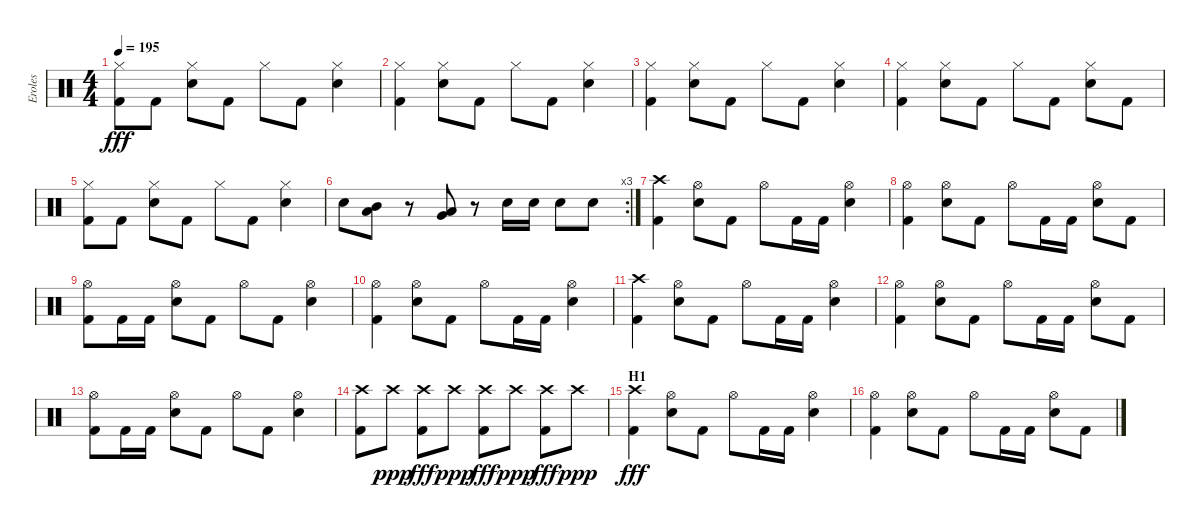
\track ("Eroles" "Eroles") {instrument percussion}
\staff {score}
\articulation defaults
\ts (4 4)
\tempo 195
\clef neutral
\ks c
("Hi-Hat (closed)" "Kick (hit) 2").8{dy fff} "Kick (hit) 2".8 ("Hi-Hat (closed)" "Snare (hit) 2").8 "Kick (hit) 2".8 "Hi-Hat (closed)".8 "Kick (hit) 2".8 ("Hi-Hat (closed)" "Snare (hit) 2").4 |
("Hi-Hat (closed)" "Kick (hit) 2").4 ("Hi-Hat (closed)" "Snare (hit) 2").8 "Kick (hit) 2".8 "Hi-Hat (closed)".8 "Kick (hit) 2".8 ("Hi-Hat (closed)" "Snare (hit) 2").4 |
("Hi-Hat (closed)" "Kick (hit) 2").4 ("Hi-Hat (closed)" "Snare (hit) 2").8 "Kick (hit) 2".8 "Hi-Hat (closed)".8 "Kick (hit) 2".8 ("Hi-Hat (closed)" "Snare (hit) 2").4 |
("Hi-Hat (closed)" "Kick (hit) 2").4 ("Hi-Hat (closed)" "Snare (hit) 2").8 "Kick (hit) 2".8 "Hi-Hat (closed)".8 "Kick (hit) 2".8 ("Hi-Hat (closed)" "Snare (hit) 2").8 "Kick (hit) 2".8 |
("Hi-Hat (closed)" "Kick (hit) 2").8 "Kick (hit) 2".8 ("Hi-Hat (closed)" "Snare (hit) 2").8 "Kick (hit) 2".8 "Hi-Hat (closed)".8 "Kick (hit) 2".8 ("Hi-Hat (closed)" "Snare (hit) 2").4 |
\rc 3 "Snare (hit) 2".8
("Mid Tom (hit)" "Low Tom (hit)").8 r.8 ("Low Tom (hit)" "Very Low Tom (hit)").8 r.8 "Snare (hit) 2".16 "Snare (hit) 2".16 "Snare (hit) 2".8 "Snare (hit) 2".8 |
("Crash high (hit)" "Kick (hit) 2").4 ("Hi-Hat (open)" "Snare (hit) 2").8 "Kick (hit) 2".8 "Hi-Hat (open)".8 "Kick (hit) 2".16 "Kick (hit) 2".16 ("Hi-Hat (open)" "Snare (hit) 2").4 |
("Hi-Hat (open)" "Kick (hit) 2").4 ("Hi-Hat (open)" "Snare (hit) 2").8 "Kick (hit) 2".8 "Hi-Hat (open)".8 "Kick (hit) 2".16 "Kick (hit) 2".16 ("Hi-Hat (open)" "Snare (hit) 2").8 "Kick (hit) 2".8 |
("Hi-Hat (open)" "Kick (hit) 2").8 "Kick (hit) 2".16 "Kick (hit) 2".16 ("Hi-Hat (open)" "Snare (hit) 2").8 "Kick (hit) 2".8 "Hi-Hat (open)".8 "Kick (hit) 2".8 ("Hi-Hat (open)" "Snare (hit) 2").4 |
("Hi-Hat (open)" "Kick (hit) 2").4 ("Hi-Hat (open)" "Snare (hit) 2").8 "Kick (hit) 2".8 "Hi-Hat (open)".8 "Kick (hit) 2".16 "Kick (hit) 2".16 ("Hi-Hat (open)" "Snare (hit) 2").4 |
("Crash high (hit)" "Kick (hit) 2").4 ("Hi-Hat (open)" "Snare (hit) 2").8 "Kick (hit) 2".8 "Hi-Hat (open)".8 "Kick (hit) 2".16 "Kick (hit) 2".16 ("Hi-Hat (open)" "Snare (hit) 2").4 |
("Hi-Hat (open)" "Kick (hit) 2").4 ("Hi-Hat (open)" "Snare (hit) 2").8 "Kick (hit) 2".8 "Hi-Hat (open)".8 "Kick (hit) 2".16 "Kick (hit) 2".16 ("Hi-Hat (open)" "Snare (hit) 2").8 "Kick (hit) 2".8 |
("Hi-Hat (open)" "Kick (hit) 2").8 "Kick (hit) 2".16 "Kick (hit) 2".16 ("Hi-Hat (open)" "Snare (hit) 2").8 "Kick (hit) 2".8 "Hi-Hat (open)".8 "Kick (hit) 2".8 ("Hi-Hat (open)" "Snare (hit) 2").4 |
("Crash high (hit)" "Kick (hit) 2").8 "Crash high (hit)".8{dy ppp} ("Crash high (hit)" "Kick (hit) 2").8{dy fff} "Crash high (hit)".8{dy ppp} ("Crash high (hit)" "Kick (hit) 2").8{dy fff} "Crash high (hit)".8{dy ppp} ("Crash high (hit)" "Kick (hit) 2").8{dy fff} "Crash high (hit)".8{dy ppp} |
\section ("" "H1")
("Crash high (hit)" "Kick (hit) 2").4{dy fff} ("Hi-Hat (open)" "Snare (hit) 2").8 "Kick (hit) 2".8 "Hi-Hat (open)".8 "Kick (hit) 2".16 "Kick (hit) 2".16 ("Hi-Hat (open)" "Snare (hit) 2").4 |
("Hi-Hat (open)" "Kick (hit) 2").4 ("Hi-Hat (open)" "Snare (hit) 2").8 "Kick (hit) 2".8 "Hi-Hat (open)".8 "Kick (hit) 2".16 "Kick (hit) 2".16 ("Hi-Hat (open)" "Snare (hit) 2").8 "Kick (hit) 2".8
